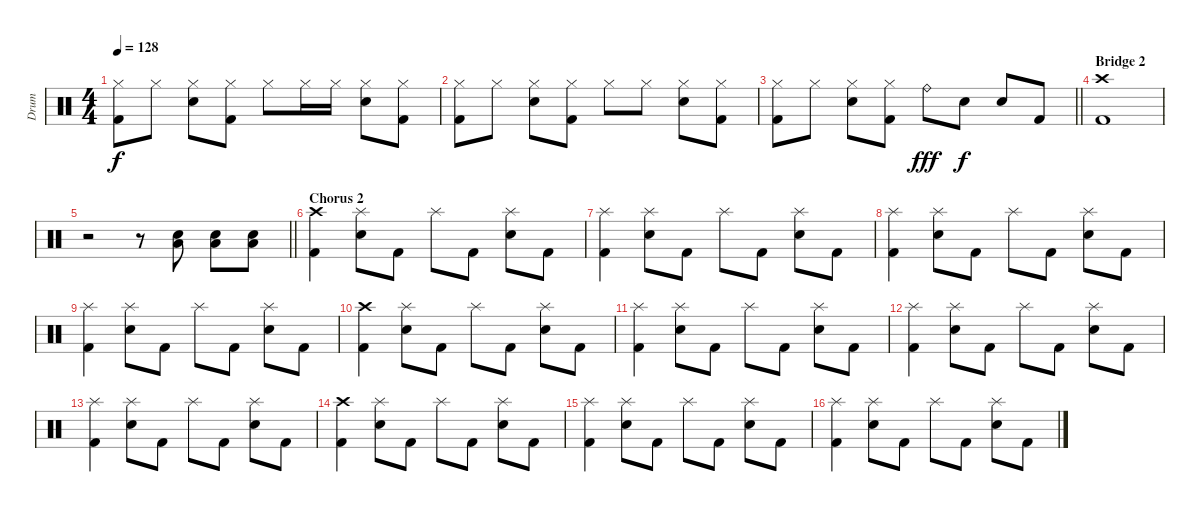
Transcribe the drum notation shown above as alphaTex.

\track ("Drum" "Drum") {instrument percussion}
\staff {score}
\articulation defaults
\ts (4 4)
\tempo 128
\clef neutral
\ks c
("Hi-Hat (closed)" "Kick (hit) 2").8{dy f} "Hi-Hat (closed)".8 ("Hi-Hat (closed)" "Electric Snare (hit)").8 ("Hi-Hat (closed)" "Kick (hit) 2").8 "Hi-Hat (closed)".8 "Hi-Hat (closed)".16 "Hi-Hat (closed)".16 ("Hi-Hat (closed)" "Electric Snare (hit)").8 ("Hi-Hat (closed)" "Kick (hit) 2").8 |
("Hi-Hat (closed)" "Kick (hit) 2").8 "Hi-Hat (closed)".8 ("Hi-Hat (closed)" "Electric Snare (hit)").8 ("Hi-Hat (closed)" "Kick (hit) 2").8 "Hi-Hat (closed)".8 "Hi-Hat (closed)".8 ("Hi-Hat (closed)" "Electric Snare (hit)").8 ("Hi-Hat (closed)" "Kick (hit) 2").8 |
\barLineRight lightlight
("Hi-Hat (closed)" "Kick (hit) 2").8 "Hi-Hat (closed)".8 ("Hi-Hat (closed)" "Electric Snare (hit)").8 ("Hi-Hat (closed)" "Kick (hit) 2").8 "Ride (bell)".8{dy fff} "Electric Snare (hit)".8{dy f} "Electric Snare (hit)".8 "Kick (hit) 2".8 |
\section ("" "Bridge 2")
("Crash high (hit)" "Kick (hit) 2").1 |
\barLineRight lightlight
r.2 r.8 ("Electric Snare (hit)" "Low Floor Tom (hit)").8 ("Electric Snare (hit)" "Low Floor Tom (hit)").8 ("Electric Snare (hit)" "Low Floor Tom (hit)").8 |
\section ("" "Chorus 2")
("Crash high (hit)" "Kick (hit) 2").4 ("Splash (hit)" "Electric Snare (hit)").8 "Kick (hit) 2".8 "Splash (hit)".8 "Kick (hit) 2".8 ("Splash (hit)" "Electric Snare (hit)").8 "Kick (hit) 2".8 |
("Splash (hit)" "Kick (hit) 2").4 ("Splash (hit)" "Electric Snare (hit)").8 "Kick (hit) 2".8 "Splash (hit)".8 "Kick (hit) 2".8 ("Splash (hit)" "Electric Snare (hit)").8 "Kick (hit) 2".8 |
("Splash (hit)" "Kick (hit) 2").4 ("Splash (hit)" "Electric Snare (hit)").8 "Kick (hit) 2".8 "Splash (hit)".8 "Kick (hit) 2".8 ("Splash (hit)" "Electric Snare (hit)").8 "Kick (hit) 2".8 |
("Splash (hit)" "Kick (hit) 2").4 ("Splash (hit)" "Electric Snare (hit)").8 "Kick (hit) 2".8 "Splash (hit)".8 "Kick (hit) 2".8 ("Splash (hit)" "Electric Snare (hit)").8 "Kick (hit) 2".8 |
("Crash high (hit)" "Kick (hit) 2").4 ("Splash (hit)" "Electric Snare (hit)").8 "Kick (hit) 2".8 "Splash (hit)".8 "Kick (hit) 2".8 ("Splash (hit)" "Electric Snare (hit)").8 "Kick (hit) 2".8 |
("Splash (hit)" "Kick (hit) 2").4 ("Splash (hit)" "Electric Snare (hit)").8 "Kick (hit) 2".8 "Splash (hit)".8 "Kick (hit) 2".8 ("Splash (hit)" "Electric Snare (hit)").8 "Kick (hit) 2".8 |
("Splash (hit)" "Kick (hit) 2").4 ("Splash (hit)" "Electric Snare (hit)").8 "Kick (hit) 2".8 "Splash (hit)".8 "Kick (hit) 2".8 ("Splash (hit)" "Electric Snare (hit)").8 "Kick (hit) 2".8 |
("Splash (hit)" "Kick (hit) 2").4 ("Splash (hit)" "Electric Snare (hit)").8 "Kick (hit) 2".8 "Splash (hit)".8 "Kick (hit) 2".8 ("Splash (hit)" "Electric Snare (hit)").8 "Kick (hit) 2".8 |
("Crash high (hit)" "Kick (hit) 2").4 ("Splash (hit)" "Electric Snare (hit)").8 "Kick (hit) 2".8 "Splash (hit)".8 "Kick (hit) 2".8 ("Splash (hit)" "Electric Snare (hit)").8 "Kick (hit) 2".8 |
("Splash (hit)" "Kick (hit) 2").4 ("Splash (hit)" "Electric Snare (hit)").8 "Kick (hit) 2".8 "Splash (hit)".8 "Kick (hit) 2".8 ("Splash (hit)" "Electric Snare (hit)").8 "Kick (hit) 2".8 |
("Splash (hit)" "Kick (hit) 2").4 ("Splash (hit)" "Electric Snare (hit)").8 "Kick (hit) 2".8 "Splash (hit)".8 "Kick (hit) 2".8 ("Splash (hit)" "Electric Snare (hit)").8 "Kick (hit) 2".8
